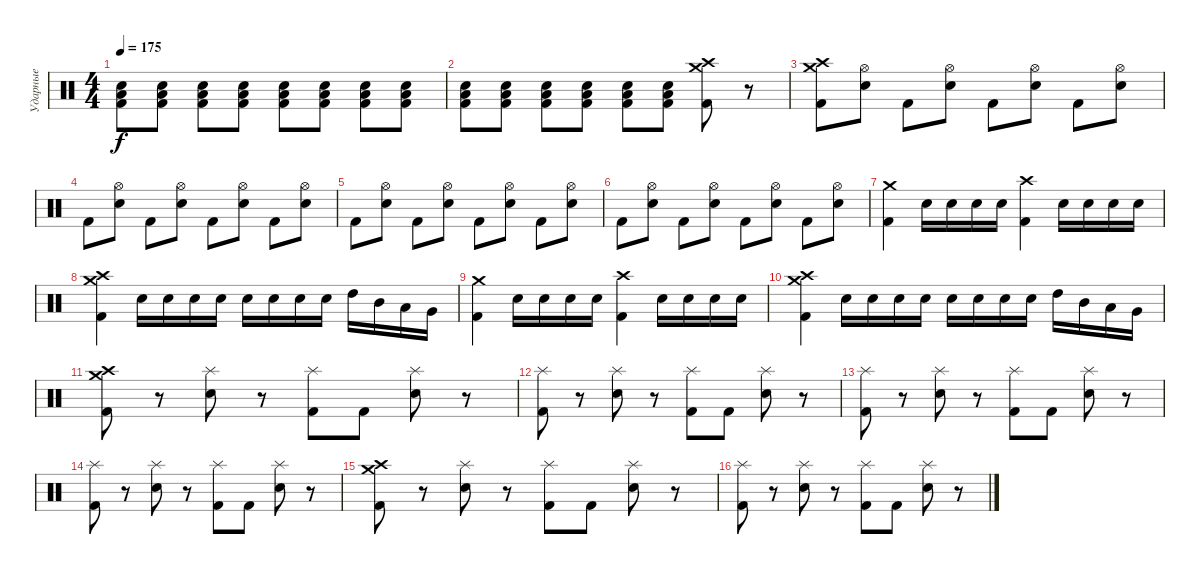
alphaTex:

\track ("Ударные" "Ударные") {instrument percussion}
\staff {score}
\articulation defaults
\ts (4 4)
\tempo 175
\clef neutral
\ks c
("Low Tom (hit)" "Kick (hit) 2" "Electric Snare (hit)").8{dy f} ("Low Tom (hit)" "Kick (hit) 2" "Electric Snare (hit)").8 ("Low Tom (hit)" "Kick (hit) 2" "Electric Snare (hit)").8 ("Low Tom (hit)" "Kick (hit) 2" "Electric Snare (hit)").8 ("Low Tom (hit)" "Kick (hit) 2" "Electric Snare (hit)").8 ("Low Tom (hit)" "Kick (hit) 2" "Electric Snare (hit)").8 ("Low Tom (hit)" "Kick (hit) 2" "Electric Snare (hit)").8 ("Low Tom (hit)" "Kick (hit) 2" "Electric Snare (hit)").8 |
("Low Tom (hit)" "Kick (hit) 2" "Electric Snare (hit)").8 ("Low Tom (hit)" "Kick (hit) 2" "Electric Snare (hit)").8 ("Low Tom (hit)" "Kick (hit) 2" "Electric Snare (hit)").8 ("Low Tom (hit)" "Kick (hit) 2" "Electric Snare (hit)").8 ("Low Tom (hit)" "Kick (hit) 2" "Electric Snare (hit)").8 ("Low Tom (hit)" "Kick (hit) 2" "Electric Snare (hit)").8 ("Crash medium (hit)" "Crash high (hit)" "Kick (hit) 2").8 r.8 |
("Crash medium (hit)" "Crash high (hit)" "Kick (hit) 2").8 ("Hi-Hat (open)" "Electric Snare (hit)").8 "Kick (hit) 2".8 ("Hi-Hat (open)" "Electric Snare (hit)").8 "Kick (hit) 2".8 ("Hi-Hat (open)" "Electric Snare (hit)").8 "Kick (hit) 2".8 ("Hi-Hat (open)" "Electric Snare (hit)").8 |
"Kick (hit) 2".8 ("Hi-Hat (open)" "Electric Snare (hit)").8 "Kick (hit) 2".8 ("Hi-Hat (open)" "Electric Snare (hit)").8 "Kick (hit) 2".8 ("Hi-Hat (open)" "Electric Snare (hit)").8 "Kick (hit) 2".8 ("Hi-Hat (open)" "Electric Snare (hit)").8 |
"Kick (hit) 2".8 ("Hi-Hat (open)" "Electric Snare (hit)").8 "Kick (hit) 2".8 ("Hi-Hat (open)" "Electric Snare (hit)").8 "Kick (hit) 2".8 ("Hi-Hat (open)" "Electric Snare (hit)").8 "Kick (hit) 2".8 ("Hi-Hat (open)" "Electric Snare (hit)").8 |
"Kick (hit) 2".8 ("Hi-Hat (open)" "Electric Snare (hit)").8 "Kick (hit) 2".8 ("Hi-Hat (open)" "Electric Snare (hit)").8 "Kick (hit) 2".8 ("Hi-Hat (open)" "Electric Snare (hit)").8 "Kick (hit) 2".8 ("Hi-Hat (open)" "Electric Snare (hit)").8 |
("Crash medium (hit)" "Kick (hit) 2").4 "Electric Snare (hit)".16 "Electric Snare (hit)".16 "Electric Snare (hit)".16 "Electric Snare (hit)".16 ("Crash high (hit)" "Kick (hit) 2").4 "Electric Snare (hit)".16 "Electric Snare (hit)".16 "Electric Snare (hit)".16 "Electric Snare (hit)".16 |
("Crash medium (hit)" "Crash high (hit)" "Kick (hit) 2").4 "Electric Snare (hit)".16 "Electric Snare (hit)".16 "Electric Snare (hit)".16 "Electric Snare (hit)".16 "Electric Snare (hit)".16 "Electric Snare (hit)".16 "Electric Snare (hit)".16 "Electric Snare (hit)".16 "High Tom (hit)".16 "Mid Tom (hit)".16 "Low Tom (hit)".16 "Very Low Tom (hit)".16 |
("Crash medium (hit)" "Kick (hit) 2").4 "Electric Snare (hit)".16 "Electric Snare (hit)".16 "Electric Snare (hit)".16 "Electric Snare (hit)".16 ("Crash high (hit)" "Kick (hit) 2").4 "Electric Snare (hit)".16 "Electric Snare (hit)".16 "Electric Snare (hit)".16 "Electric Snare (hit)".16 |
("Crash medium (hit)" "Crash high (hit)" "Kick (hit) 2").4 "Electric Snare (hit)".16 "Electric Snare (hit)".16 "Electric Snare (hit)".16 "Electric Snare (hit)".16 "Electric Snare (hit)".16 "Electric Snare (hit)".16 "Electric Snare (hit)".16 "Electric Snare (hit)".16 "High Tom (hit)".16 "Mid Tom (hit)".16 "Low Tom (hit)".16 "Very Low Tom (hit)".16 |
("Crash medium (hit)" "Crash high (hit)" "Kick (hit) 2").8 r.8 ("Splash (hit)" "Electric Snare (hit)").8 r.8 ("Splash (hit)" "Kick (hit) 2").8 "Kick (hit) 2".8 ("Splash (hit)" "Electric Snare (hit)").8 r.8 |
("Splash (hit)" "Kick (hit) 2").8 r.8 ("Splash (hit)" "Electric Snare (hit)").8 r.8 ("Splash (hit)" "Kick (hit) 2").8 "Kick (hit) 2".8 ("Splash (hit)" "Electric Snare (hit)").8 r.8 |
("Splash (hit)" "Kick (hit) 2").8 r.8 ("Splash (hit)" "Electric Snare (hit)").8 r.8 ("Splash (hit)" "Kick (hit) 2").8 "Kick (hit) 2".8 ("Splash (hit)" "Electric Snare (hit)").8 r.8 |
("Splash (hit)" "Kick (hit) 2").8 r.8 ("Splash (hit)" "Electric Snare (hit)").8 r.8 ("Splash (hit)" "Kick (hit) 2").8 "Kick (hit) 2".8 ("Splash (hit)" "Electric Snare (hit)").8 r.8 |
("Crash medium (hit)" "Crash high (hit)" "Kick (hit) 2").8 r.8 ("Splash (hit)" "Electric Snare (hit)").8 r.8 ("Splash (hit)" "Kick (hit) 2").8 "Kick (hit) 2".8 ("Splash (hit)" "Electric Snare (hit)").8 r.8 |
("Splash (hit)" "Kick (hit) 2").8 r.8 ("Splash (hit)" "Electric Snare (hit)").8 r.8 ("Splash (hit)" "Kick (hit) 2").8 "Kick (hit) 2".8 ("Splash (hit)" "Electric Snare (hit)").8 r.8
